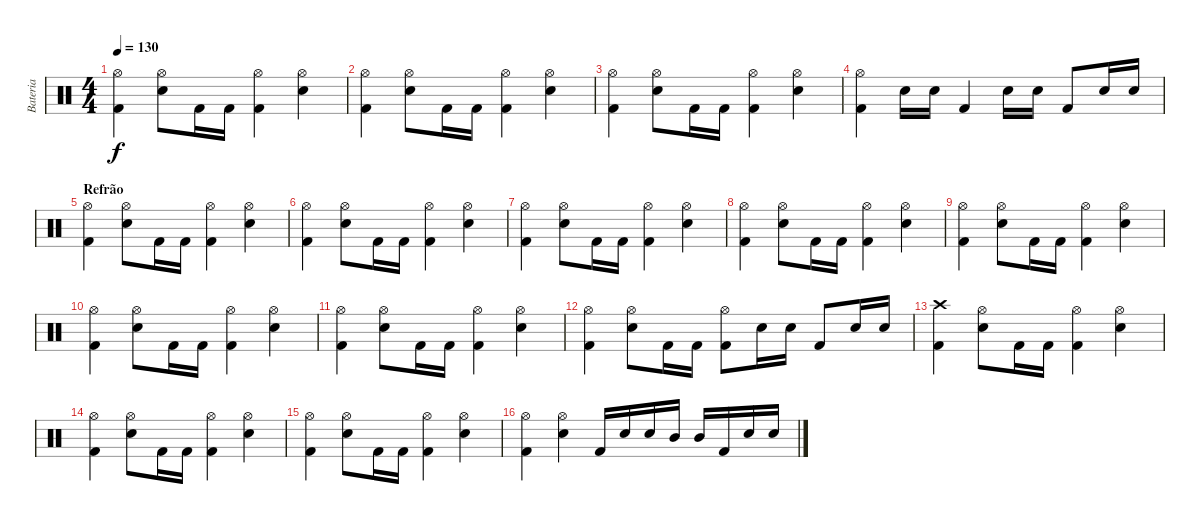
\track ("Bateria" "Bateria") {instrument percussion}
\staff {score}
\articulation defaults
\ts (4 4)
\tempo 130
\clef neutral
\ks c
("Hi-Hat (open)" "Kick (hit) 2").4{dy f} ("Hi-Hat (open)" "Electric Snare (hit)").8 "Kick (hit) 2".16 "Kick (hit) 2".16 ("Hi-Hat (open)" "Kick (hit) 2").4 ("Hi-Hat (open)" "Electric Snare (hit)").4 |
("Hi-Hat (open)" "Kick (hit) 2").4 ("Hi-Hat (open)" "Electric Snare (hit)").8 "Kick (hit) 2".16 "Kick (hit) 2".16 ("Hi-Hat (open)" "Kick (hit) 2").4 ("Hi-Hat (open)" "Electric Snare (hit)").4 |
("Hi-Hat (open)" "Kick (hit) 2").4 ("Hi-Hat (open)" "Electric Snare (hit)").8 "Kick (hit) 2".16 "Kick (hit) 2".16 ("Hi-Hat (open)" "Kick (hit) 2").4 ("Hi-Hat (open)" "Electric Snare (hit)").4 |
("Hi-Hat (open)" "Kick (hit) 2").4 "Electric Snare (hit)".16 "Electric Snare (hit)".16 "Kick (hit) 2".4 "Electric Snare (hit)".16 "Electric Snare (hit)".16 "Kick (hit) 2".8 "Electric Snare (hit)".16 "Electric Snare (hit)".16 |
\section ("" "Refrão")
("Hi-Hat (open)" "Kick (hit) 2").4 ("Hi-Hat (open)" "Electric Snare (hit)").8 "Kick (hit) 2".16 "Kick (hit) 2".16 ("Hi-Hat (open)" "Kick (hit) 2").4 ("Hi-Hat (open)" "Electric Snare (hit)").4 |
("Hi-Hat (open)" "Kick (hit) 2").4 ("Hi-Hat (open)" "Electric Snare (hit)").8 "Kick (hit) 2".16 "Kick (hit) 2".16 ("Hi-Hat (open)" "Kick (hit) 2").4 ("Hi-Hat (open)" "Electric Snare (hit)").4 |
("Hi-Hat (open)" "Kick (hit) 2").4 ("Hi-Hat (open)" "Electric Snare (hit)").8 "Kick (hit) 2".16 "Kick (hit) 2".16 ("Hi-Hat (open)" "Kick (hit) 2").4 ("Hi-Hat (open)" "Electric Snare (hit)").4 |
("Hi-Hat (open)" "Kick (hit) 2").4 ("Hi-Hat (open)" "Electric Snare (hit)").8 "Kick (hit) 2".16 "Kick (hit) 2".16 ("Hi-Hat (open)" "Kick (hit) 2").4 ("Hi-Hat (open)" "Electric Snare (hit)").4 |
("Hi-Hat (open)" "Kick (hit) 2").4 ("Hi-Hat (open)" "Electric Snare (hit)").8 "Kick (hit) 2".16 "Kick (hit) 2".16 ("Hi-Hat (open)" "Kick (hit) 2").4 ("Hi-Hat (open)" "Electric Snare (hit)").4 |
("Hi-Hat (open)" "Kick (hit) 2").4 ("Hi-Hat (open)" "Electric Snare (hit)").8 "Kick (hit) 2".16 "Kick (hit) 2".16 ("Hi-Hat (open)" "Kick (hit) 2").4 ("Hi-Hat (open)" "Electric Snare (hit)").4 |
("Hi-Hat (open)" "Kick (hit) 2").4 ("Hi-Hat (open)" "Electric Snare (hit)").8 "Kick (hit) 2".16 "Kick (hit) 2".16 ("Hi-Hat (open)" "Kick (hit) 2").4 ("Hi-Hat (open)" "Electric Snare (hit)").4 |
("Hi-Hat (open)" "Kick (hit) 2").4 ("Hi-Hat (open)" "Electric Snare (hit)").8 "Kick (hit) 2".16 "Kick (hit) 2".16 ("Hi-Hat (open)" "Kick (hit) 2").8 "Electric Snare (hit)".16 "Electric Snare (hit)".16 "Kick (hit) 2".8 "Electric Snare (hit)".16 "Electric Snare (hit)".16 |
("Crash high (hit)" "Kick (hit) 2").4 ("Hi-Hat (open)" "Electric Snare (hit)").8 "Kick (hit) 2".16 "Kick (hit) 2".16 ("Hi-Hat (open)" "Kick (hit) 2").4 ("Hi-Hat (open)" "Electric Snare (hit)").4 |
("Hi-Hat (open)" "Kick (hit) 2").4 ("Hi-Hat (open)" "Electric Snare (hit)").8 "Kick (hit) 2".16 "Kick (hit) 2".16 ("Hi-Hat (open)" "Kick (hit) 2").4 ("Hi-Hat (open)" "Electric Snare (hit)").4 |
("Hi-Hat (open)" "Kick (hit) 2").4 ("Hi-Hat (open)" "Electric Snare (hit)").8 "Kick (hit) 2".16 "Kick (hit) 2".16 ("Hi-Hat (open)" "Kick (hit) 2").4 ("Hi-Hat (open)" "Electric Snare (hit)").4 |
("Hi-Hat (open)" "Kick (hit) 2").4 ("Hi-Hat (open)" "Electric Snare (hit)").4 "Kick (hit) 2".16 "Electric Snare (hit)".16 "Electric Snare (hit)".16 "Mid Tom (hit)".16 "Mid Tom (hit)".16 "Kick (hit) 2".16 "Electric Snare (hit)".16 "Electric Snare (hit)".16
